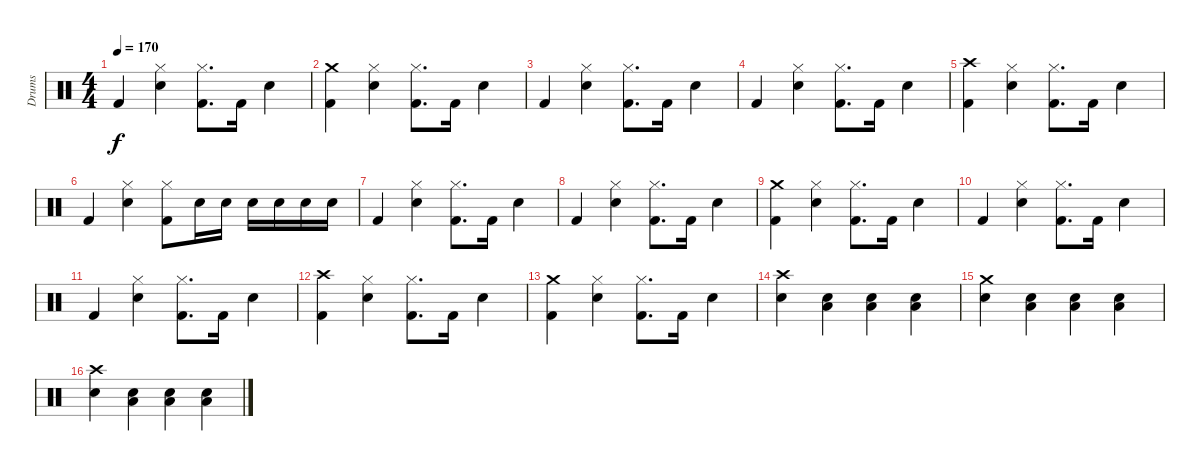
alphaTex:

\track ("Drums" "Drums") {instrument percussion}
\staff {score}
\articulation defaults
\ts (4 4)
\tempo 170
\clef neutral
\ks c "Kick (hit) 2".4{dy f}
("Hi-Hat (closed)" "Snare (hit) 2").4 ("Hi-Hat (closed)" "Kick (hit) 2").8{d} "Kick (hit) 2".16 "Snare (hit) 2".4 |
("Crash medium (hit)" "Kick (hit) 2").4 ("Hi-Hat (closed)" "Snare (hit) 2").4 ("Hi-Hat (closed)" "Kick (hit) 2").8{d} "Kick (hit) 2".16 "Snare (hit) 2".4 |
"Kick (hit) 2".4 ("Hi-Hat (closed)" "Snare (hit) 2").4 ("Hi-Hat (closed)" "Kick (hit) 2").8{d} "Kick (hit) 2".16 "Snare (hit) 2".4 |
"Kick (hit) 2".4 ("Hi-Hat (closed)" "Snare (hit) 2").4 ("Hi-Hat (closed)" "Kick (hit) 2").8{d} "Kick (hit) 2".16 "Snare (hit) 2".4 |
("Crash high (hit)" "Kick (hit) 2").4 ("Hi-Hat (closed)" "Snare (hit) 2").4 ("Hi-Hat (closed)" "Kick (hit) 2").8{d} "Kick (hit) 2".16 "Snare (hit) 2".4 |
"Kick (hit) 2".4 ("Hi-Hat (closed)" "Snare (hit) 2").4 ("Hi-Hat (closed)" "Kick (hit) 2").8 "Snare (hit) 2".16 "Snare (hit) 2".16 "Snare (hit) 2".16 "Snare (hit) 2".16 "Snare (hit) 2".16 "Snare (hit) 2".16 |
"Kick (hit) 2".4 ("Hi-Hat (closed)" "Snare (hit) 2").4 ("Hi-Hat (closed)" "Kick (hit) 2").8{d} "Kick (hit) 2".16 "Snare (hit) 2".4 |
"Kick (hit) 2".4 ("Hi-Hat (closed)" "Snare (hit) 2").4 ("Hi-Hat (closed)" "Kick (hit) 2").8{d} "Kick (hit) 2".16 "Snare (hit) 2".4 |
("Crash medium (hit)" "Kick (hit) 2").4 ("Hi-Hat (closed)" "Snare (hit) 2").4 ("Hi-Hat (closed)" "Kick (hit) 2").8{d} "Kick (hit) 2".16 "Snare (hit) 2".4 |
"Kick (hit) 2".4 ("Hi-Hat (closed)" "Snare (hit) 2").4 ("Hi-Hat (closed)" "Kick (hit) 2").8{d} "Kick (hit) 2".16 "Snare (hit) 2".4 |
"Kick (hit) 2".4 ("Hi-Hat (closed)" "Snare (hit) 2").4 ("Hi-Hat (closed)" "Kick (hit) 2").8{d} "Kick (hit) 2".16 "Snare (hit) 2".4 |
("Crash high (hit)" "Kick (hit) 2").4 ("Hi-Hat (closed)" "Snare (hit) 2").4 ("Hi-Hat (closed)" "Kick (hit) 2").8{d} "Kick (hit) 2".16 "Snare (hit) 2".4 |
("Crash medium (hit)" "Kick (hit) 2").4 ("Hi-Hat (closed)" "Snare (hit) 2").4 ("Hi-Hat (closed)" "Kick (hit) 2").8{d} "Kick (hit) 2".16 "Snare (hit) 2".4 |
("Crash high (hit)" "Snare (hit) 2").4 ("Low Floor Tom (hit)" "Snare (hit) 2").4 ("Low Floor Tom (hit)" "Snare (hit) 2").4 ("Low Floor Tom (hit)" "Snare (hit) 2").4 |
("Crash medium (hit)" "Snare (hit) 2").4 ("Low Floor Tom (hit)" "Snare (hit) 2").4 ("Low Floor Tom (hit)" "Snare (hit) 2").4 ("Low Floor Tom (hit)" "Snare (hit) 2").4 |
("Crash high (hit)" "Snare (hit) 2").4 ("Low Floor Tom (hit)" "Snare (hit) 2").4 ("Low Floor Tom (hit)" "Snare (hit) 2").4 ("Low Floor Tom (hit)" "Snare (hit) 2").4
